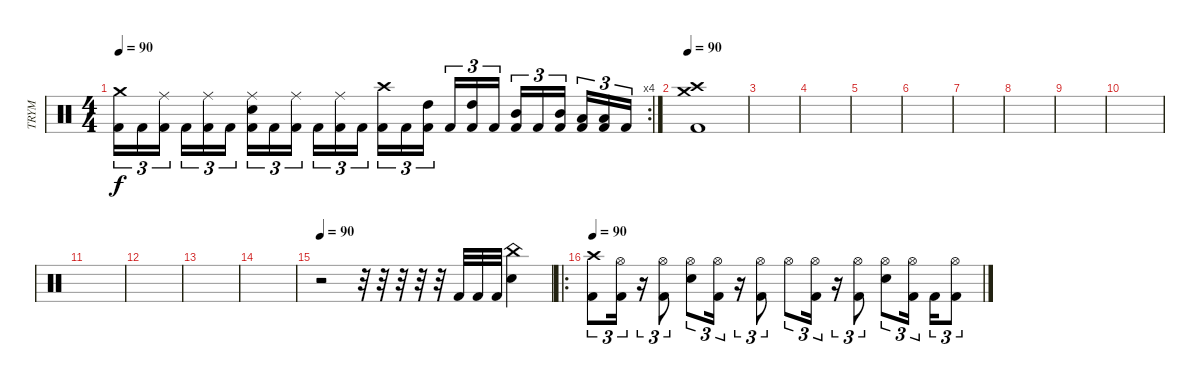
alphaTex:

\track ("TRYM" "TRYM") {instrument percussion}
\staff {score}
\articulation defaults
\rc 4
\ts (4 4)
\tempo 90
\clef neutral
\ks c
("Kick (hit) 2" "Crash medium (hit)").16{tu (3 2) dy f} "Kick (hit) 2".16{tu (3 2)} ("Kick (hit) 2" "Ride (middle)").16{tu (3 2)} "Kick (hit) 2".16{tu (3 2)} ("Kick (hit) 2" "Ride (middle)").16{tu (3 2)} "Kick (hit) 2".16{tu (3 2)} ("Kick (hit) 2" "Ride (middle)" "Electric Snare (hit)").16{tu (3 2)} "Kick (hit) 2".16{tu (3 2)} ("Kick (hit) 2" "Ride (middle)").16{tu (3 2)} "Kick (hit) 2".16{tu (3 2)} ("Kick (hit) 2" "Ride (middle)").16{tu (3 2)} "Kick (hit) 2".16{tu (3 2)} ("Kick (hit) 2" "Crash high (hit)").16{tu (3 2)} "Kick (hit) 2".16{tu (3 2)} ("Kick (hit) 2" "High Tom (hit)").16{tu (3 2)} "Kick (hit) 2".16{tu (3 2)} ("Kick (hit) 2" "High Tom (hit)").16{tu (3 2)} "Kick (hit) 2".16{tu (3 2)} ("Kick (hit) 2" "Mid Tom (hit)").16{tu (3 2)} "Kick (hit) 2".16{tu (3 2)} ("Kick (hit) 2" "Mid Tom (hit)").16{tu (3 2)} ("Kick (hit) 2" "Low Tom (hit)").16{tu (3 2)} ("Kick (hit) 2" "Low Tom (hit)").16{tu (3 2)} "Kick (hit) 2".16{tu (3 2)} |
\tempo 90
("Kick (hit) 2" "Crash medium (hit)" "Crash high (hit)").1 |
|
|
|
|
|
|
|
|
|
|
|
|
\tempo 90
r.2 r.32 r.32 r.32 r.32 r.32 "Kick (hit) 2".32 "Kick (hit) 2".32 "Kick (hit) 2".32 ("Electric Snare (hit)" "China (hit)").4 |
\ro
\tempo 90
("Kick (hit) 2" "Crash high (hit)").8{tu (3 2)} ("Kick (hit) 2" "Hi-Hat (open)").16{tu (3 2)} r.16{tu (3 2)} ("Kick (hit) 2" "Hi-Hat (open)").8{tu (3 2)} ("Hi-Hat (open)" "Electric Snare (hit)").8{tu (3 2)} ("Kick (hit) 2" "Hi-Hat (open)").16{tu (3 2)} r.16{tu (3 2)} ("Kick (hit) 2" "Hi-Hat (open)").8{tu (3 2)} "Hi-Hat (open)".8{tu (3 2)} ("Kick (hit) 2" "Hi-Hat (open)").16{tu (3 2)} r.16{tu (3 2)} ("Kick (hit) 2" "Hi-Hat (open)").8{tu (3 2)} ("Hi-Hat (open)" "Electric Snare (hit)").8{tu (3 2)} ("Kick (hit) 2" "Hi-Hat (open)").16{tu (3 2)} "Kick (hit) 2".16{tu (3 2)} ("Kick (hit) 2" "Hi-Hat (open)").8{tu (3 2)}
